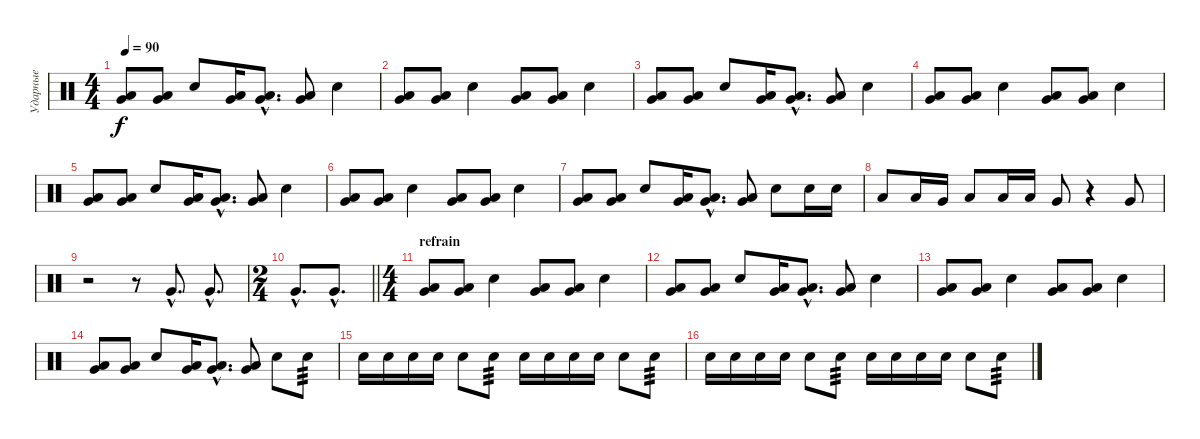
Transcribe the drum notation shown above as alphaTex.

\track ("Ударные" "Ударные") {instrument percussion}
\staff {score}
\articulation defaults
\ts (4 4)
\tempo 90
\clef neutral
\ks c
("Low Floor Tom (hit)" "Very Low Tom (hit)").8{dy f} ("Low Floor Tom (hit)" "Very Low Tom (hit)").8 "Snare (hit) 2".8 ("Low Floor Tom (hit)" "Very Low Tom (hit)").16 ("Low Floor Tom (hit)"{hac} "Very Low Tom (hit)"{hac}).8{d} ("Low Floor Tom (hit)" "Very Low Tom (hit)").8 "Snare (hit) 2".4 |
("Low Floor Tom (hit)" "Very Low Tom (hit)").8 ("Low Floor Tom (hit)" "Very Low Tom (hit)").8 "Snare (hit) 2".4 ("Low Floor Tom (hit)" "Very Low Tom (hit)").8 ("Low Floor Tom (hit)" "Very Low Tom (hit)").8 "Snare (hit) 2".4 |
("Low Floor Tom (hit)" "Very Low Tom (hit)").8 ("Low Floor Tom (hit)" "Very Low Tom (hit)").8 "Snare (hit) 2".8 ("Low Floor Tom (hit)" "Very Low Tom (hit)").16 ("Low Floor Tom (hit)"{hac} "Very Low Tom (hit)"{hac}).8{d} ("Low Floor Tom (hit)" "Very Low Tom (hit)").8 "Snare (hit) 2".4 |
("Low Floor Tom (hit)" "Very Low Tom (hit)").8 ("Low Floor Tom (hit)" "Very Low Tom (hit)").8 "Snare (hit) 2".4 ("Low Floor Tom (hit)" "Very Low Tom (hit)").8 ("Low Floor Tom (hit)" "Very Low Tom (hit)").8 "Snare (hit) 2".4 |
("Low Floor Tom (hit)" "Very Low Tom (hit)").8 ("Low Floor Tom (hit)" "Very Low Tom (hit)").8 "Snare (hit) 2".8 ("Low Floor Tom (hit)" "Very Low Tom (hit)").16 ("Low Floor Tom (hit)"{hac} "Very Low Tom (hit)"{hac}).8{d} ("Low Floor Tom (hit)" "Very Low Tom (hit)").8 "Snare (hit) 2".4 |
("Low Floor Tom (hit)" "Very Low Tom (hit)").8 ("Low Floor Tom (hit)" "Very Low Tom (hit)").8 "Snare (hit) 2".4 ("Low Floor Tom (hit)" "Very Low Tom (hit)").8 ("Low Floor Tom (hit)" "Very Low Tom (hit)").8 "Snare (hit) 2".4 |
("Low Floor Tom (hit)" "Very Low Tom (hit)").8 ("Low Floor Tom (hit)" "Very Low Tom (hit)").8 "Snare (hit) 2".8 ("Low Floor Tom (hit)" "Very Low Tom (hit)").16 ("Low Floor Tom (hit)"{hac} "Very Low Tom (hit)"{hac}).8{d} ("Low Floor Tom (hit)" "Very Low Tom (hit)").8 "Snare (hit) 2".8 "Snare (hit) 2".16 "Snare (hit) 2".16 |
"Low Floor Tom (hit)".8 "Low Floor Tom (hit)".16 "Very Low Tom (hit)".16 "Low Floor Tom (hit)".8 "Low Floor Tom (hit)".16 "Low Floor Tom (hit)".16 "Very Low Tom (hit)".8 r.4 "Very Low Tom (hit)".8 |
r.2 r.8 "Very Low Tom (hit)"{hac}.8{d} "Very Low Tom (hit)"{hac}.8{d} |
\ts (2 4)
\barLineRight lightlight "Very Low Tom (hit)"{hac}.8{d} "Very Low Tom (hit)"{hac}.8{d}
|
\ts (4 4)
\section ("" "refrain")
("Low Floor Tom (hit)" "Very Low Tom (hit)").8 ("Low Floor Tom (hit)" "Very Low Tom (hit)").8 "Snare (hit) 2".4 ("Low Floor Tom (hit)" "Very Low Tom (hit)").8 ("Low Floor Tom (hit)" "Very Low Tom (hit)").8 "Snare (hit) 2".4 |
("Low Floor Tom (hit)" "Very Low Tom (hit)").8 ("Low Floor Tom (hit)" "Very Low Tom (hit)").8 "Snare (hit) 2".8 ("Low Floor Tom (hit)" "Very Low Tom (hit)").16 ("Low Floor Tom (hit)"{hac} "Very Low Tom (hit)"{hac}).8{d} ("Low Floor Tom (hit)" "Very Low Tom (hit)").8 "Snare (hit) 2".4 |
("Low Floor Tom (hit)" "Very Low Tom (hit)").8 ("Low Floor Tom (hit)" "Very Low Tom (hit)").8 "Snare (hit) 2".4 ("Low Floor Tom (hit)" "Very Low Tom (hit)").8 ("Low Floor Tom (hit)" "Very Low Tom (hit)").8 "Snare (hit) 2".4 |
("Low Floor Tom (hit)" "Very Low Tom (hit)").8 ("Low Floor Tom (hit)" "Very Low Tom (hit)").8 "Snare (hit) 2".8 ("Low Floor Tom (hit)" "Very Low Tom (hit)").16 ("Low Floor Tom (hit)"{hac} "Very Low Tom (hit)"{hac}).8{d} ("Low Floor Tom (hit)" "Very Low Tom (hit)").8 "Snare (hit) 2".8 "Snare (hit) 2".8{tp 3} |
"Snare (hit) 2".16 "Snare (hit) 2".16 "Snare (hit) 2".16 "Snare (hit) 2".16 "Snare (hit) 2".8 "Snare (hit) 2".8{tp 3} "Snare (hit) 2".16 "Snare (hit) 2".16 "Snare (hit) 2".16 "Snare (hit) 2".16 "Snare (hit) 2".8 "Snare (hit) 2".8{tp 3} |
"Snare (hit) 2".16 "Snare (hit) 2".16 "Snare (hit) 2".16 "Snare (hit) 2".16 "Snare (hit) 2".8 "Snare (hit) 2".8{tp 3} "Snare (hit) 2".16 "Snare (hit) 2".16 "Snare (hit) 2".16 "Snare (hit) 2".16 "Snare (hit) 2".8 "Snare (hit) 2".8{tp 3}
